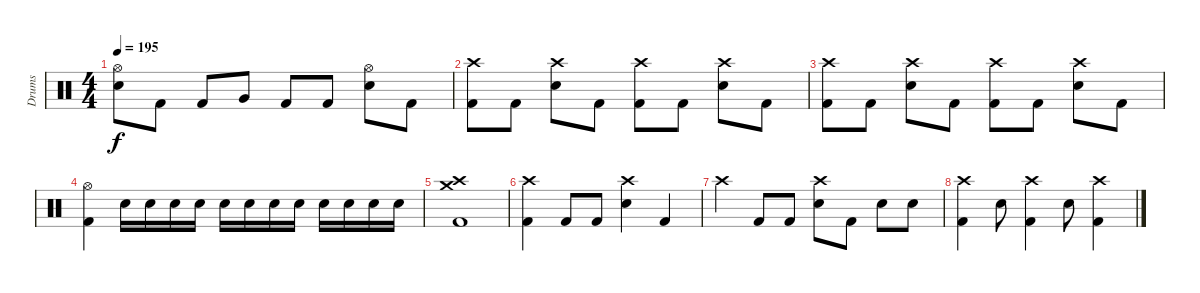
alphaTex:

\track ("Drums" "Drums") {instrument percussion}
\staff {score}
\articulation defaults
\ts (4 4)
\tempo 195
\clef neutral
\ks c
("Hi-Hat (open)" "Electric Snare (hit)").8{dy f} "Kick (hit) 2".8 "Kick (hit) 2".8 "Very Low Tom (hit)".8 "Kick (hit) 2".8 "Kick (hit) 2".8 ("Hi-Hat (open)" "Electric Snare (hit)").8 "Kick (hit) 2".8 |
("Crash high (hit)" "Kick (hit) 2").8 "Kick (hit) 2".8 ("Crash high (hit)" "Electric Snare (hit)").8 "Kick (hit) 2".8 ("Crash high (hit)" "Kick (hit) 2").8 "Kick (hit) 2".8 ("Crash high (hit)" "Electric Snare (hit)").8 "Kick (hit) 2".8 |
("Crash high (hit)" "Kick (hit) 2").8 "Kick (hit) 2".8 ("Crash high (hit)" "Electric Snare (hit)").8 "Kick (hit) 2".8 ("Crash high (hit)" "Kick (hit) 2").8 "Kick (hit) 2".8 ("Crash high (hit)" "Electric Snare (hit)").8 "Kick (hit) 2".8 |
("Hi-Hat (open)" "Kick (hit) 2").4 "Electric Snare (hit)".16 "Electric Snare (hit)".16 "Electric Snare (hit)".16 "Electric Snare (hit)".16 "Electric Snare (hit)".16 "Electric Snare (hit)".16 "Electric Snare (hit)".16 "Electric Snare (hit)".16 "Electric Snare (hit)".16 "Electric Snare (hit)".16 "Electric Snare (hit)".16 "Electric Snare (hit)".16 |
("Crash high (hit)" "Crash medium (hit)" "Kick (hit) 2").1 |
("Crash high (hit)" "Kick (hit) 2").4 "Kick (hit) 2".8 "Kick (hit) 2".8 ("Crash high (hit)" "Electric Snare (hit)").4 "Kick (hit) 2".4 |
"Crash high (hit)".4 "Kick (hit) 2".8 "Kick (hit) 2".8 ("Crash high (hit)" "Electric Snare (hit)").8 "Kick (hit) 2".8 "Electric Snare (hit)".8 "Electric Snare (hit)".8 |
("Crash high (hit)" "Kick (hit) 2").4 "Electric Snare (hit)".8 ("Crash high (hit)" "Kick (hit) 2").4 "Electric Snare (hit)".8 ("Crash high (hit)" "Kick (hit) 2").4
